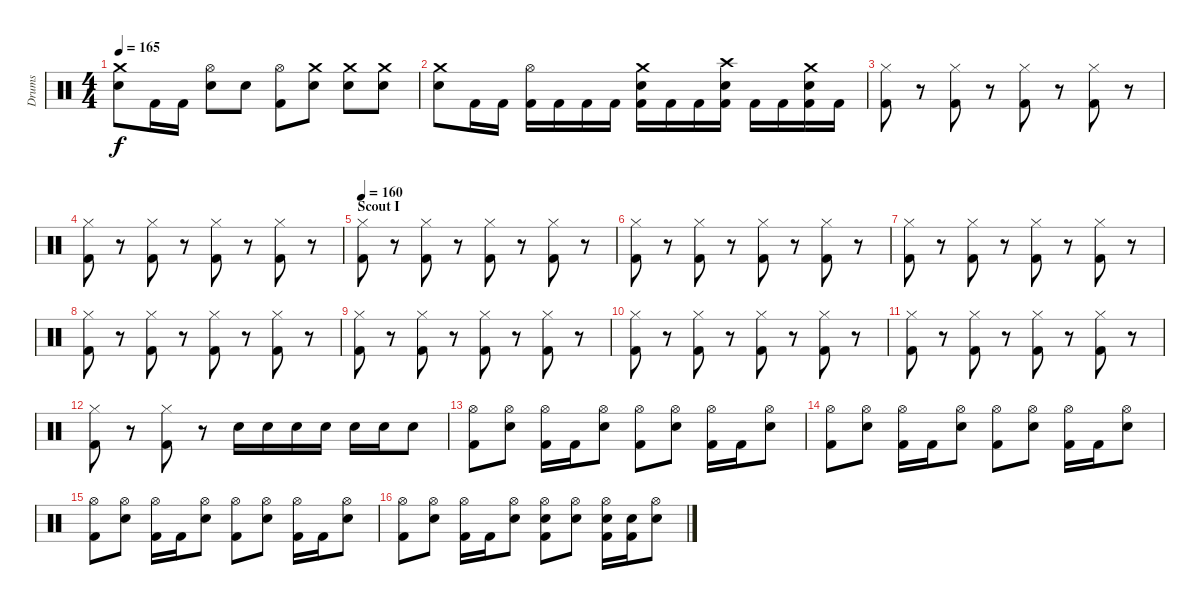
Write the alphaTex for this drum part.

\track ("Drums" "Drums") {instrument percussion}
\staff {score}
\articulation defaults
\ts (4 4)
\tempo 165
\clef neutral
\ks c
("Crash medium (hit)" "Snare (hit) 2").8{dy f} "Kick (hit) 2".16 "Kick (hit) 2".16 ("Hi-Hat (open)" "Snare (hit) 2").8 "Snare (hit) 2".8 ("Hi-Hat (open)" "Kick (hit) 2").8 ("Crash medium (hit)" "Snare (hit) 2").8 ("Crash medium (hit)" "Snare (hit) 2").8 ("Crash medium (hit)" "Snare (hit) 2").8 |
("Crash medium (hit)" "Snare (hit) 2").8 "Kick (hit) 2".16 "Kick (hit) 2".16 ("Hi-Hat (open)" "Kick (hit) 2").16 "Kick (hit) 2".16 "Kick (hit) 2".16 "Kick (hit) 2".16 ("Crash medium (hit)" "Snare (hit) 2" "Kick (hit) 2").16 "Kick (hit) 2".16 "Kick (hit) 2".16 ("Crash high (hit)" "Snare (hit) 2" "Kick (hit) 2").16 "Kick (hit) 2".16 "Kick (hit) 2".16 ("Crash medium (hit)" "Snare (hit) 2" "Kick (hit) 2").16 "Kick (hit) 2".16 |
("Hi-Hat (closed)" "Kick (hit) 2").8 r.8 ("Hi-Hat (closed)" "Kick (hit) 2").8 r.8 ("Hi-Hat (closed)" "Kick (hit) 2").8 r.8 ("Hi-Hat (closed)" "Kick (hit) 2").8 r.8 |
("Hi-Hat (closed)" "Kick (hit) 2").8 r.8 ("Hi-Hat (closed)" "Kick (hit) 2").8 r.8 ("Hi-Hat (closed)" "Kick (hit) 2").8 r.8 ("Hi-Hat (closed)" "Kick (hit) 2").8 r.8 |
\section ("" "Scout I")
\tempo 160
("Hi-Hat (closed)" "Kick (hit) 2").8 r.8 ("Hi-Hat (closed)" "Kick (hit) 2").8 r.8 ("Hi-Hat (closed)" "Kick (hit) 2").8 r.8 ("Hi-Hat (closed)" "Kick (hit) 2").8 r.8 |
("Hi-Hat (closed)" "Kick (hit) 2").8 r.8 ("Hi-Hat (closed)" "Kick (hit) 2").8 r.8 ("Hi-Hat (closed)" "Kick (hit) 2").8 r.8 ("Hi-Hat (closed)" "Kick (hit) 2").8 r.8 |
("Hi-Hat (closed)" "Kick (hit) 2").8 r.8 ("Hi-Hat (closed)" "Kick (hit) 2").8 r.8 ("Hi-Hat (closed)" "Kick (hit) 2").8 r.8 ("Hi-Hat (closed)" "Kick (hit) 2").8 r.8 |
("Hi-Hat (closed)" "Kick (hit) 2").8 r.8 ("Hi-Hat (closed)" "Kick (hit) 2").8 r.8 ("Hi-Hat (closed)" "Kick (hit) 2").8 r.8 ("Hi-Hat (closed)" "Kick (hit) 2").8 r.8 |
("Hi-Hat (closed)" "Kick (hit) 2").8 r.8 ("Hi-Hat (closed)" "Kick (hit) 2").8 r.8 ("Hi-Hat (closed)" "Kick (hit) 2").8 r.8 ("Hi-Hat (closed)" "Kick (hit) 2").8 r.8 |
("Hi-Hat (closed)" "Kick (hit) 2").8 r.8 ("Hi-Hat (closed)" "Kick (hit) 2").8 r.8 ("Hi-Hat (closed)" "Kick (hit) 2").8 r.8 ("Hi-Hat (closed)" "Kick (hit) 2").8 r.8 |
("Hi-Hat (closed)" "Kick (hit) 2").8 r.8 ("Hi-Hat (closed)" "Kick (hit) 2").8 r.8 ("Hi-Hat (closed)" "Kick (hit) 2").8 r.8 ("Hi-Hat (closed)" "Kick (hit) 2").8 r.8 |
("Hi-Hat (closed)" "Kick (hit) 2").8 r.8 ("Hi-Hat (closed)" "Kick (hit) 2").8 r.8 "Snare (hit) 2".16 "Snare (hit) 2".16 "Snare (hit) 2".16 "Snare (hit) 2".16 "Snare (hit) 2".16 "Snare (hit) 2".16 "Snare (hit) 2".8 |
\section ("" "")
("Hi-Hat (open)" "Kick (hit) 2").8 ("Hi-Hat (open)" "Snare (hit) 2").8 ("Hi-Hat (open)" "Kick (hit) 2").16 "Kick (hit) 2".16 ("Hi-Hat (open)" "Snare (hit) 2").8 ("Hi-Hat (open)" "Kick (hit) 2").8 ("Hi-Hat (open)" "Snare (hit) 2").8 ("Hi-Hat (open)" "Kick (hit) 2").16 "Kick (hit) 2".16 ("Hi-Hat (open)" "Snare (hit) 2").8 |
("Hi-Hat (open)" "Kick (hit) 2").8 ("Hi-Hat (open)" "Snare (hit) 2").8 ("Hi-Hat (open)" "Kick (hit) 2").16 "Kick (hit) 2".16 ("Hi-Hat (open)" "Snare (hit) 2").8 ("Hi-Hat (open)" "Kick (hit) 2").8 ("Hi-Hat (open)" "Snare (hit) 2").8 ("Hi-Hat (open)" "Kick (hit) 2").16 "Kick (hit) 2".16 ("Hi-Hat (open)" "Snare (hit) 2").8 |
("Hi-Hat (open)" "Kick (hit) 2").8 ("Hi-Hat (open)" "Snare (hit) 2").8 ("Hi-Hat (open)" "Kick (hit) 2").16 "Kick (hit) 2".16 ("Hi-Hat (open)" "Snare (hit) 2").8 ("Hi-Hat (open)" "Kick (hit) 2").8 ("Hi-Hat (open)" "Snare (hit) 2").8 ("Hi-Hat (open)" "Kick (hit) 2").16 "Kick (hit) 2".16 ("Hi-Hat (open)" "Snare (hit) 2").8 |
("Hi-Hat (open)" "Kick (hit) 2").8 ("Hi-Hat (open)" "Snare (hit) 2").8 ("Hi-Hat (open)" "Kick (hit) 2").16 "Kick (hit) 2".16 ("Hi-Hat (open)" "Snare (hit) 2").8 ("Hi-Hat (open)" "Snare (hit) 2" "Kick (hit) 2").8 ("Hi-Hat (open)" "Snare (hit) 2").8 ("Hi-Hat (open)" "Snare (hit) 2" "Kick (hit) 2").16 ("Snare (hit) 2" "Kick (hit) 2").16 ("Hi-Hat (open)" "Snare (hit) 2").8
